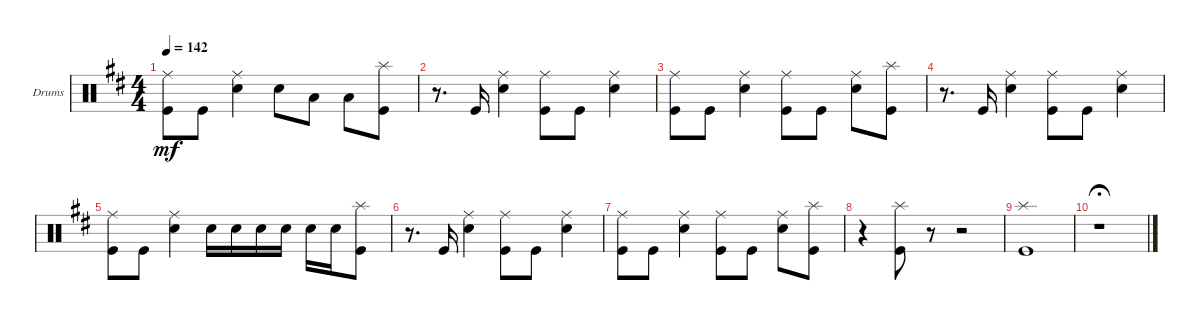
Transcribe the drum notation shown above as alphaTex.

\defaultSystemsLayout 4
\bracketExtendMode groupsimilarinstruments
\firstSystemTrackNameOrientation horizontal
\otherSystemsTrackNameOrientation horizontal
\track ("Drums" "Drums") {instrument percussion}
\staff {score}
\articulation defaults
\ts (4 4)
\tempo 142
\clef neutral
\ks d
("Kick (hit)" "Ride (middle)").8{dy mf} "Kick (hit)".8 ("Snare (hit) 2" "Ride (middle)").4 "Snare (hit) 2".8 "Low Tom (hit)".8 "Low Tom (hit)".8 ("Kick (hit)" "Splash (hit)").8 |
r.8{d} "Kick (hit)".16 ("Snare (hit) 2" "Ride (middle)").4 ("Kick (hit)" "Ride (middle)").8 "Kick (hit)".8 ("Snare (hit) 2" "Ride (middle)").4 |
("Kick (hit)" "Ride (middle)").8 "Kick (hit)".8 ("Snare (hit) 2" "Ride (middle)").4 ("Kick (hit)" "Ride (middle)").8 "Kick (hit)".8 ("Snare (hit) 2" "Ride (middle)").8 ("Kick (hit)" "Splash (hit)").8 |
r.8{d} "Kick (hit)".16 ("Snare (hit) 2" "Ride (middle)").4 ("Kick (hit)" "Ride (middle)").8 "Kick (hit)".8 ("Snare (hit) 2" "Ride (middle)").4 |
("Kick (hit)" "Ride (middle)").8 "Kick (hit)".8 ("Snare (hit) 2" "Ride (middle)").4 "Snare (hit) 2".16 "Snare (hit) 2".16 "Snare (hit) 2".16 "Snare (hit) 2".16 "Snare (hit) 2".16 "Snare (hit) 2".16 ("Kick (hit)" "Splash (hit)").8 |
r.8{d} "Kick (hit)".16 ("Snare (hit) 2" "Ride (middle)").4 ("Kick (hit)" "Ride (middle)").8 "Kick (hit)".8 ("Snare (hit) 2" "Ride (middle)").4 |
("Kick (hit)" "Ride (middle)").8 "Kick (hit)".8 ("Snare (hit) 2" "Ride (middle)").4 ("Kick (hit)" "Ride (middle)").8 "Kick (hit)".8 ("Snare (hit) 2" "Ride (middle)").8 ("Kick (hit)" "Splash (hit)").8 |
r.4 ("Splash (hit)" "Kick (hit)").8 r.8 r.2 |
("Kick (hit)" "Splash (hit)").1 |
r.1{fermata (medium 1)}
